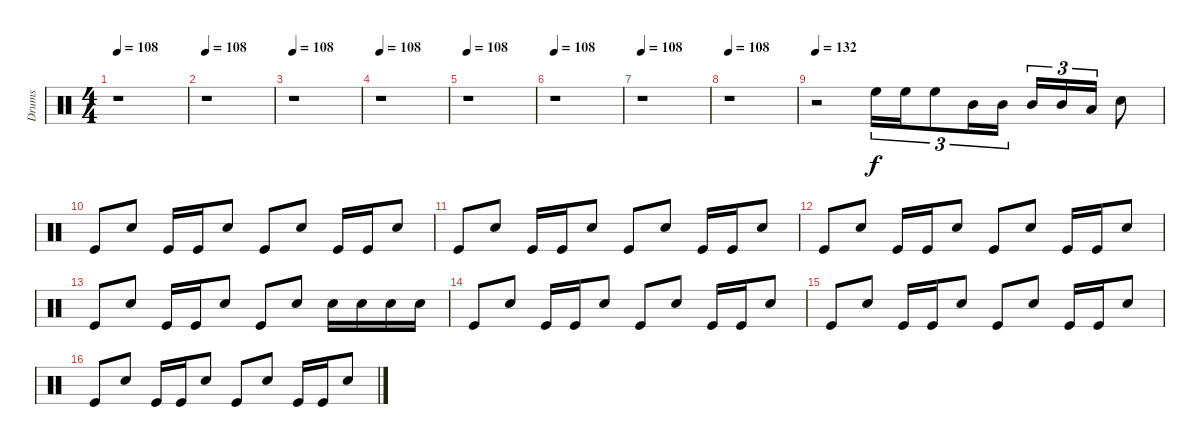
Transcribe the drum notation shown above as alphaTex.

\track ("Drums" "Drums") {instrument percussion}
\staff {score}
\articulation defaults
\ts (4 4)
\tempo 108
\clef neutral
\ks c
r.1{dy f} |
\tempo 108
r.1 |
\tempo 108
r.1 |
\tempo 108
r.1 |
\tempo 108
r.1 |
\tempo 108
r.1 |
\tempo 108
r.1 |
\tempo 108
r.1 |
\tempo 132
r.2 "High Floor Tom (hit)".16{tu (3 2)} "High Floor Tom (hit)".16{tu (3 2)} "High Floor Tom (hit)".8{tu (3 2)} "Mid Tom (hit)".16{tu (3 2)} "Mid Tom (hit)".16{tu (3 2)} "Mid Tom (hit)".16{tu (3 2)} "Mid Tom (hit)".16{tu (3 2)} "Low Tom (hit)".16{tu (3 2)} "Electric Snare (hit)".8 |
"Kick (hit)".8 "Electric Snare (hit)".8 "Kick (hit)".16 "Kick (hit)".16 "Electric Snare (hit)".8 "Kick (hit)".8 "Electric Snare (hit)".8 "Kick (hit)".16 "Kick (hit)".16 "Electric Snare (hit)".8 |
"Kick (hit)".8 "Electric Snare (hit)".8 "Kick (hit)".16 "Kick (hit)".16 "Electric Snare (hit)".8 "Kick (hit)".8 "Electric Snare (hit)".8 "Kick (hit)".16 "Kick (hit)".16 "Electric Snare (hit)".8 |
"Kick (hit)".8 "Electric Snare (hit)".8 "Kick (hit)".16 "Kick (hit)".16 "Electric Snare (hit)".8 "Kick (hit)".8 "Electric Snare (hit)".8 "Kick (hit)".16 "Kick (hit)".16 "Electric Snare (hit)".8 |
"Kick (hit)".8 "Electric Snare (hit)".8 "Kick (hit)".16 "Kick (hit)".16 "Electric Snare (hit)".8 "Kick (hit)".8 "Electric Snare (hit)".8 "Electric Snare (hit)".16 "Electric Snare (hit)".16 "Electric Snare (hit)".16 "Electric Snare (hit)".16 |
"Kick (hit)".8 "Electric Snare (hit)".8 "Kick (hit)".16 "Kick (hit)".16 "Electric Snare (hit)".8 "Kick (hit)".8 "Electric Snare (hit)".8 "Kick (hit)".16 "Kick (hit)".16 "Electric Snare (hit)".8 |
"Kick (hit)".8 "Electric Snare (hit)".8 "Kick (hit)".16 "Kick (hit)".16 "Electric Snare (hit)".8 "Kick (hit)".8 "Electric Snare (hit)".8 "Kick (hit)".16 "Kick (hit)".16 "Electric Snare (hit)".8 |
"Kick (hit)".8 "Electric Snare (hit)".8 "Kick (hit)".16 "Kick (hit)".16 "Electric Snare (hit)".8 "Kick (hit)".8 "Electric Snare (hit)".8 "Kick (hit)".16 "Kick (hit)".16 "Electric Snare (hit)".8
